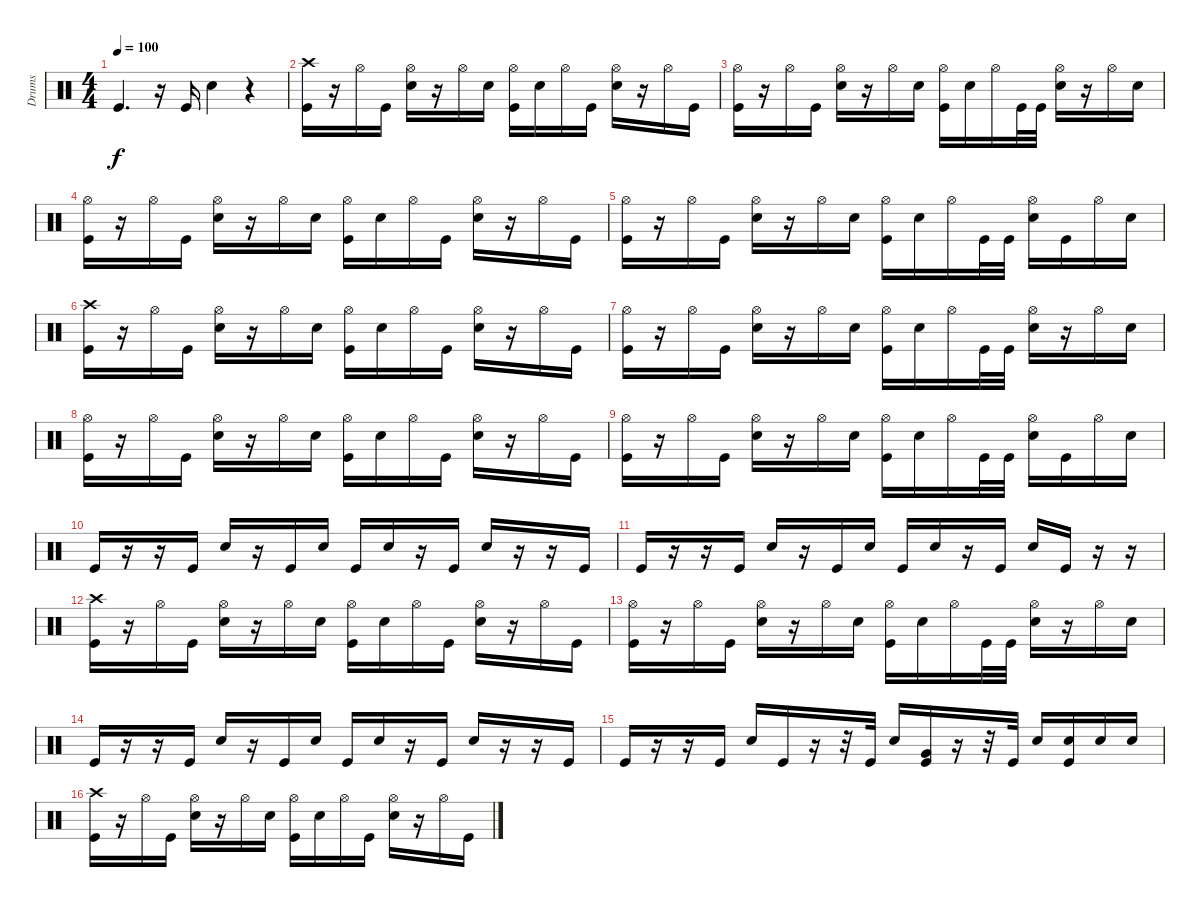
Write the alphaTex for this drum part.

\track ("Drums" "Drums") {instrument percussion}
\staff {score}
\articulation defaults
\ts (4 4)
\tempo 100
\clef neutral
\ks c "Kick (hit)".4{d dy f}
r.16 "Kick (hit)".16 "Electric Snare (hit)".4 r.4 |
("Crash high (hit)" "Kick (hit)").16 r.16 "Hi-Hat (open)".16 "Kick (hit)".16 ("Hi-Hat (open)" "Electric Snare (hit)").16 r.16 "Hi-Hat (open)".16 "Electric Snare (hit)".16 ("Hi-Hat (open)" "Kick (hit)").16 "Electric Snare (hit)".16 "Hi-Hat (open)".16 "Kick (hit)".16 ("Hi-Hat (open)" "Electric Snare (hit)").16 r.16 "Hi-Hat (open)".16 "Kick (hit)".16 |
("Hi-Hat (open)" "Kick (hit)").16 r.16 "Hi-Hat (open)".16 "Kick (hit)".16 ("Hi-Hat (open)" "Electric Snare (hit)").16 r.16 "Hi-Hat (open)".16 "Electric Snare (hit)".16 ("Hi-Hat (open)" "Kick (hit)").16 "Electric Snare (hit)".16 "Hi-Hat (open)".16 "Kick (hit)".32 "Kick (hit)".32 ("Hi-Hat (open)" "Electric Snare (hit)").16 r.16 "Hi-Hat (open)".16 "Electric Snare (hit)".16 |
("Hi-Hat (open)" "Kick (hit)").16 r.16 "Hi-Hat (open)".16 "Kick (hit)".16 ("Hi-Hat (open)" "Electric Snare (hit)").16 r.16 "Hi-Hat (open)".16 "Electric Snare (hit)".16 ("Hi-Hat (open)" "Kick (hit)").16 "Electric Snare (hit)".16 "Hi-Hat (open)".16 "Kick (hit)".16 ("Hi-Hat (open)" "Electric Snare (hit)").16 r.16 "Hi-Hat (open)".16 "Kick (hit)".16 |
("Hi-Hat (open)" "Kick (hit)").16 r.16 "Hi-Hat (open)".16 "Kick (hit)".16 ("Hi-Hat (open)" "Electric Snare (hit)").16 r.16 "Hi-Hat (open)".16 "Electric Snare (hit)".16 ("Hi-Hat (open)" "Kick (hit)").16 "Electric Snare (hit)".16 "Hi-Hat (open)".16 "Kick (hit)".32 "Kick (hit)".32 ("Hi-Hat (open)" "Electric Snare (hit)").16 "Kick (hit)".16 "Hi-Hat (open)".16 "Electric Snare (hit)".16 |
("Crash high (hit)" "Kick (hit)").16 r.16 "Hi-Hat (open)".16 "Kick (hit)".16 ("Hi-Hat (open)" "Electric Snare (hit)").16 r.16 "Hi-Hat (open)".16 "Electric Snare (hit)".16 ("Hi-Hat (open)" "Kick (hit)").16 "Electric Snare (hit)".16 "Hi-Hat (open)".16 "Kick (hit)".16 ("Hi-Hat (open)" "Electric Snare (hit)").16 r.16 "Hi-Hat (open)".16 "Kick (hit)".16 |
("Hi-Hat (open)" "Kick (hit)").16 r.16 "Hi-Hat (open)".16 "Kick (hit)".16 ("Hi-Hat (open)" "Electric Snare (hit)").16 r.16 "Hi-Hat (open)".16 "Electric Snare (hit)".16 ("Hi-Hat (open)" "Kick (hit)").16 "Electric Snare (hit)".16 "Hi-Hat (open)".16 "Kick (hit)".32 "Kick (hit)".32 ("Hi-Hat (open)" "Electric Snare (hit)").16 r.16 "Hi-Hat (open)".16 "Electric Snare (hit)".16 |
("Hi-Hat (open)" "Kick (hit)").16 r.16 "Hi-Hat (open)".16 "Kick (hit)".16 ("Hi-Hat (open)" "Electric Snare (hit)").16 r.16 "Hi-Hat (open)".16 "Electric Snare (hit)".16 ("Hi-Hat (open)" "Kick (hit)").16 "Electric Snare (hit)".16 "Hi-Hat (open)".16 "Kick (hit)".16 ("Hi-Hat (open)" "Electric Snare (hit)").16 r.16 "Hi-Hat (open)".16 "Kick (hit)".16 |
("Hi-Hat (open)" "Kick (hit)").16 r.16 "Hi-Hat (open)".16 "Kick (hit)".16 ("Hi-Hat (open)" "Electric Snare (hit)").16 r.16 "Hi-Hat (open)".16 "Electric Snare (hit)".16 ("Hi-Hat (open)" "Kick (hit)").16 "Electric Snare (hit)".16 "Hi-Hat (open)".16 "Kick (hit)".32 "Kick (hit)".32 ("Hi-Hat (open)" "Electric Snare (hit)").16 "Kick (hit)".16 "Hi-Hat (open)".16 "Electric Snare (hit)".16 |
"Kick (hit)".16 r.16 r.16 "Kick (hit)".16 "Electric Snare (hit)".16 r.16 "Kick (hit)".16 "Electric Snare (hit)".16 "Kick (hit)".16 "Electric Snare (hit)".16 r.16 "Kick (hit)".16 "Electric Snare (hit)".16 r.16 r.16 "Kick (hit)".16 |
"Kick (hit)".16 r.16 r.16 "Kick (hit)".16 "Electric Snare (hit)".16 r.16 "Kick (hit)".16 "Electric Snare (hit)".16 "Kick (hit)".16 "Electric Snare (hit)".16 r.16 "Kick (hit)".16 "Electric Snare (hit)".16 "Kick (hit)".16 r.16 r.16 |
("Crash high (hit)" "Kick (hit)").16 r.16 "Hi-Hat (open)".16 "Kick (hit)".16 ("Hi-Hat (open)" "Electric Snare (hit)").16 r.16 "Hi-Hat (open)".16 "Electric Snare (hit)".16 ("Hi-Hat (open)" "Kick (hit)").16 "Electric Snare (hit)".16 "Hi-Hat (open)".16 "Kick (hit)".16 ("Hi-Hat (open)" "Electric Snare (hit)").16 r.16 "Hi-Hat (open)".16 "Kick (hit)".16 |
("Hi-Hat (open)" "Kick (hit)").16 r.16 "Hi-Hat (open)".16 "Kick (hit)".16 ("Hi-Hat (open)" "Electric Snare (hit)").16 r.16 "Hi-Hat (open)".16 "Electric Snare (hit)".16 ("Hi-Hat (open)" "Kick (hit)").16 "Electric Snare (hit)".16 "Hi-Hat (open)".16 "Kick (hit)".32 "Kick (hit)".32 ("Hi-Hat (open)" "Electric Snare (hit)").16 r.16 "Hi-Hat (open)".16 "Electric Snare (hit)".16 |
"Kick (hit)".16 r.16 r.16 "Kick (hit)".16 "Electric Snare (hit)".16 r.16 "Kick (hit)".16 "Electric Snare (hit)".16 "Kick (hit)".16 "Electric Snare (hit)".16 r.16 "Kick (hit)".16 "Electric Snare (hit)".16 r.16 r.16 "Kick (hit)".16 |
"Kick (hit)".16 r.16 r.16 "Kick (hit)".16 "Electric Snare (hit)".16 "Kick (hit)".16 r.16 r.32 "Kick (hit)".32 "Electric Snare (hit)".16 ("Very Low Tom (hit)" "Kick (hit)").16 r.16 r.32 "Kick (hit)".32 "Electric Snare (hit)".16 ("Electric Snare (hit)" "Kick (hit)").16 "Electric Snare (hit)".16 "Electric Snare (hit)".16 |
("Crash high (hit)" "Kick (hit)").16 r.16 "Hi-Hat (open)".16 "Kick (hit)".16 ("Hi-Hat (open)" "Electric Snare (hit)").16 r.16 "Hi-Hat (open)".16 "Electric Snare (hit)".16 ("Hi-Hat (open)" "Kick (hit)").16 "Electric Snare (hit)".16 "Hi-Hat (open)".16 "Kick (hit)".16 ("Hi-Hat (open)" "Electric Snare (hit)").16 r.16 "Hi-Hat (open)".16 "Kick (hit)".16
